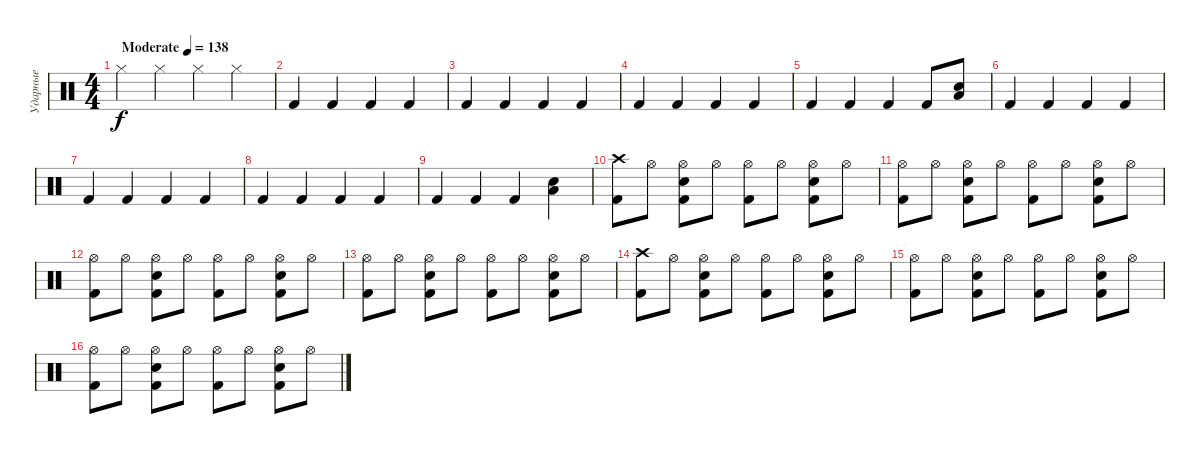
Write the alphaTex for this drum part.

\track ("Ударные" "Ударные") {instrument percussion}
\staff {score}
\articulation defaults
\ts (4 4)
\tempo (138 "Moderate")
\clef neutral
\ks c "Hi-Hat (closed)".4{dy f} "Hi-Hat (closed)".4 "Hi-Hat (closed)".4 "Hi-Hat (closed)".4
|
"Kick (hit) 2".4 "Kick (hit) 2".4 "Kick (hit) 2".4 "Kick (hit) 2".4 |
"Kick (hit) 2".4 "Kick (hit) 2".4 "Kick (hit) 2".4 "Kick (hit) 2".4 |
"Kick (hit) 2".4 "Kick (hit) 2".4 "Kick (hit) 2".4 "Kick (hit) 2".4 |
"Kick (hit) 2".4 "Kick (hit) 2".4 "Kick (hit) 2".4 "Kick (hit) 2".8 ("Low Tom (hit)" "Electric Snare (hit)").8 |
"Kick (hit) 2".4 "Kick (hit) 2".4 "Kick (hit) 2".4 "Kick (hit) 2".4 |
"Kick (hit) 2".4 "Kick (hit) 2".4 "Kick (hit) 2".4 "Kick (hit) 2".4 |
"Kick (hit) 2".4 "Kick (hit) 2".4 "Kick (hit) 2".4 "Kick (hit) 2".4 |
"Kick (hit) 2".4 "Kick (hit) 2".4 "Kick (hit) 2".4 ("Low Tom (hit)" "Electric Snare (hit)").4 |
("Crash high (hit)" "Kick (hit) 2").8 "Hi-Hat (open)".8 ("Hi-Hat (open)" "Electric Snare (hit)" "Kick (hit) 2").8 "Hi-Hat (open)".8 ("Hi-Hat (open)" "Kick (hit) 2").8 "Hi-Hat (open)".8 ("Hi-Hat (open)" "Electric Snare (hit)" "Kick (hit) 2").8 "Hi-Hat (open)".8 |
("Hi-Hat (open)" "Kick (hit) 2").8 "Hi-Hat (open)".8 ("Hi-Hat (open)" "Electric Snare (hit)" "Kick (hit) 2").8 "Hi-Hat (open)".8 ("Hi-Hat (open)" "Kick (hit) 2").8 "Hi-Hat (open)".8 ("Hi-Hat (open)" "Electric Snare (hit)" "Kick (hit) 2").8 "Hi-Hat (open)".8 |
("Hi-Hat (open)" "Kick (hit) 2").8 "Hi-Hat (open)".8 ("Hi-Hat (open)" "Electric Snare (hit)" "Kick (hit) 2").8 "Hi-Hat (open)".8 ("Hi-Hat (open)" "Kick (hit) 2").8 "Hi-Hat (open)".8 ("Hi-Hat (open)" "Electric Snare (hit)" "Kick (hit) 2").8 "Hi-Hat (open)".8 |
("Hi-Hat (open)" "Kick (hit) 2").8 "Hi-Hat (open)".8 ("Hi-Hat (open)" "Electric Snare (hit)" "Kick (hit) 2").8 "Hi-Hat (open)".8 ("Hi-Hat (open)" "Kick (hit) 2").8 "Hi-Hat (open)".8 ("Hi-Hat (open)" "Electric Snare (hit)" "Kick (hit) 2").8 "Hi-Hat (open)".8 |
("Crash high (hit)" "Kick (hit) 2").8 "Hi-Hat (open)".8 ("Hi-Hat (open)" "Electric Snare (hit)" "Kick (hit) 2").8 "Hi-Hat (open)".8 ("Hi-Hat (open)" "Kick (hit) 2").8 "Hi-Hat (open)".8 ("Hi-Hat (open)" "Electric Snare (hit)" "Kick (hit) 2").8 "Hi-Hat (open)".8 |
("Hi-Hat (open)" "Kick (hit) 2").8 "Hi-Hat (open)".8 ("Hi-Hat (open)" "Electric Snare (hit)" "Kick (hit) 2").8 "Hi-Hat (open)".8 ("Hi-Hat (open)" "Kick (hit) 2").8 "Hi-Hat (open)".8 ("Hi-Hat (open)" "Electric Snare (hit)" "Kick (hit) 2").8 "Hi-Hat (open)".8 |
("Hi-Hat (open)" "Kick (hit) 2").8 "Hi-Hat (open)".8 ("Hi-Hat (open)" "Electric Snare (hit)" "Kick (hit) 2").8 "Hi-Hat (open)".8 ("Hi-Hat (open)" "Kick (hit) 2").8 "Hi-Hat (open)".8 ("Hi-Hat (open)" "Electric Snare (hit)" "Kick (hit) 2").8 "Hi-Hat (open)".8
